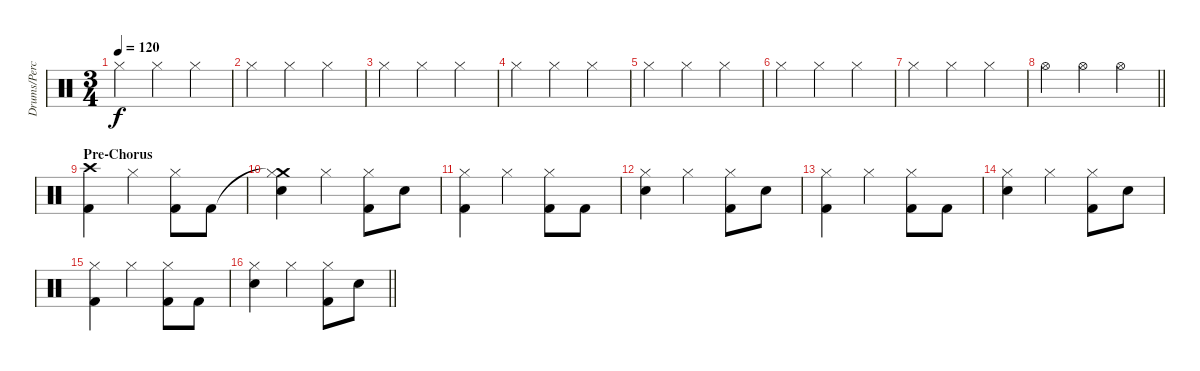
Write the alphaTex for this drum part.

\track ("Drums/Percussion" "Drums/Perc") {instrument percussion}
\staff {score}
\articulation defaults
\ts (3 4)
\tempo 120
\clef neutral
\ks c "Hi-Hat (closed)".4{dy f} "Hi-Hat (closed)".4 "Hi-Hat (closed)".4
|
"Hi-Hat (closed)".4 "Hi-Hat (closed)".4 "Hi-Hat (closed)".4 |
"Hi-Hat (closed)".4 "Hi-Hat (closed)".4 "Hi-Hat (closed)".4 |
"Hi-Hat (closed)".4 "Hi-Hat (closed)".4 "Hi-Hat (closed)".4 |
"Hi-Hat (closed)".4 "Hi-Hat (closed)".4 "Hi-Hat (closed)".4 |
"Hi-Hat (closed)".4 "Hi-Hat (closed)".4 "Hi-Hat (closed)".4 |
"Hi-Hat (closed)".4 "Hi-Hat (closed)".4 "Hi-Hat (closed)".4 |
\barLineRight lightlight "Hi-Hat (open)".4 "Hi-Hat (open)".4 "Hi-Hat (open)".4
|
\section ("" "Pre-Chorus")
("Crash high (hit)" "Kick (hit) 2").4 "Hi-Hat (closed)".4 ("Hi-Hat (closed)" "Kick (hit) 2").8 "Kick (hit) 2".8 |
("Crash medium (hit)"{t} "Hi-Hat (closed)" "Snare (hit) 2").4 "Hi-Hat (closed)".4 ("Hi-Hat (closed)" "Kick (hit) 2").8 "Snare (hit) 2".8 |
("Hi-Hat (closed)" "Kick (hit) 2").4 "Hi-Hat (closed)".4 ("Hi-Hat (closed)" "Kick (hit) 2").8 "Kick (hit) 2".8 |
("Hi-Hat (closed)" "Snare (hit) 2").4 "Hi-Hat (closed)".4 ("Hi-Hat (closed)" "Kick (hit) 2").8 "Snare (hit) 2".8 |
("Hi-Hat (closed)" "Kick (hit) 2").4 "Hi-Hat (closed)".4 ("Hi-Hat (closed)" "Kick (hit) 2").8 "Kick (hit) 2".8 |
("Hi-Hat (closed)" "Snare (hit) 2").4 "Hi-Hat (closed)".4 ("Hi-Hat (closed)" "Kick (hit) 2").8 "Snare (hit) 2".8 |
("Hi-Hat (closed)" "Kick (hit) 2").4 "Hi-Hat (closed)".4 ("Hi-Hat (closed)" "Kick (hit) 2").8 "Kick (hit) 2".8 |
\barLineRight lightlight
("Hi-Hat (closed)" "Snare (hit) 2").4 "Hi-Hat (closed)".4 ("Hi-Hat (closed)" "Kick (hit) 2").8 "Snare (hit) 2".8
